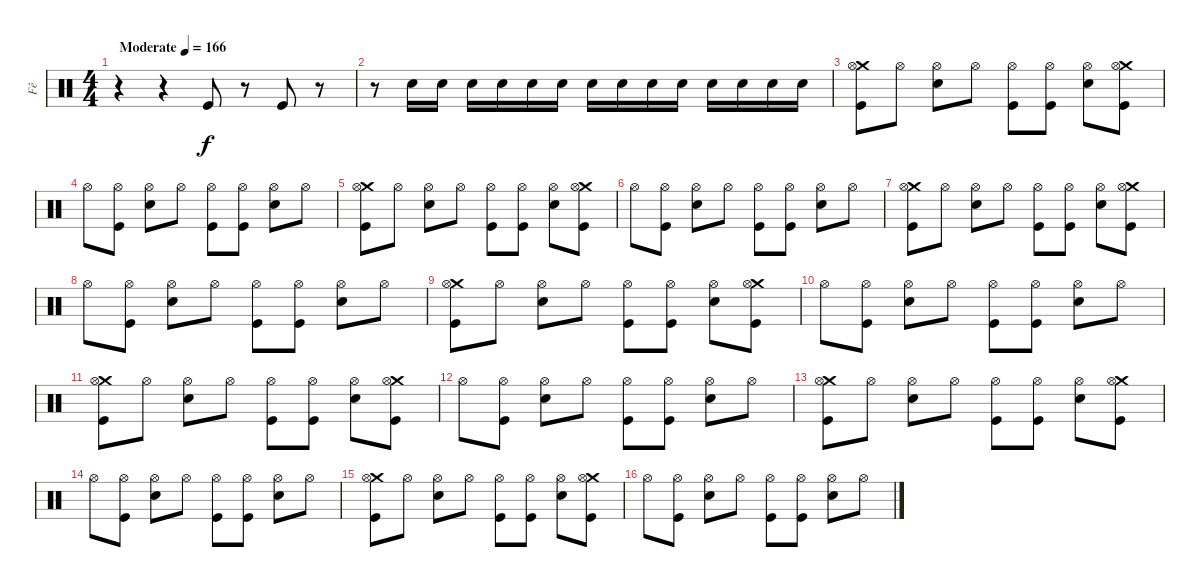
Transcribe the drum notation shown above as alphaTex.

\track ("Fê" "Fê") {instrument percussion}
\staff {score}
\articulation defaults
\ts (4 4)
\tempo (166 "Moderate")
\clef neutral
\ks c
r.4{dy f} r.4 "Kick (hit)".8 r.8 "Kick (hit)".8 r.8 |
r.8 "Electric Snare (hit)".16 "Electric Snare (hit)".16 "Electric Snare (hit)".16 "Electric Snare (hit)".16 "Electric Snare (hit)".16 "Electric Snare (hit)".16 "Electric Snare (hit)".16 "Electric Snare (hit)".16 "Electric Snare (hit)".16 "Electric Snare (hit)".16 "Electric Snare (hit)".16 "Electric Snare (hit)".16 "Electric Snare (hit)".16 "Electric Snare (hit)".16 |
("Crash medium (hit)" "Hi-Hat (open)" "Kick (hit)").8 "Hi-Hat (open)".8 ("Hi-Hat (open)" "Electric Snare (hit)").8 "Hi-Hat (open)".8 ("Hi-Hat (open)" "Kick (hit)").8 ("Hi-Hat (open)" "Kick (hit)").8 ("Hi-Hat (open)" "Electric Snare (hit)").8 ("Crash medium (hit)" "Hi-Hat (open)" "Kick (hit)").8 |
"Hi-Hat (open)".8 ("Hi-Hat (open)" "Kick (hit)").8 ("Hi-Hat (open)" "Electric Snare (hit)").8 "Hi-Hat (open)".8 ("Hi-Hat (open)" "Kick (hit)").8 ("Hi-Hat (open)" "Kick (hit)").8 ("Hi-Hat (open)" "Electric Snare (hit)").8 "Hi-Hat (open)".8 |
("Crash medium (hit)" "Hi-Hat (open)" "Kick (hit)").8 "Hi-Hat (open)".8 ("Hi-Hat (open)" "Electric Snare (hit)").8 "Hi-Hat (open)".8 ("Hi-Hat (open)" "Kick (hit)").8 ("Hi-Hat (open)" "Kick (hit)").8 ("Hi-Hat (open)" "Electric Snare (hit)").8 ("Crash medium (hit)" "Hi-Hat (open)" "Kick (hit)").8 |
"Hi-Hat (open)".8 ("Hi-Hat (open)" "Kick (hit)").8 ("Hi-Hat (open)" "Electric Snare (hit)").8 "Hi-Hat (open)".8 ("Hi-Hat (open)" "Kick (hit)").8 ("Hi-Hat (open)" "Kick (hit)").8 ("Hi-Hat (open)" "Electric Snare (hit)").8 "Hi-Hat (open)".8 |
("Crash medium (hit)" "Hi-Hat (open)" "Kick (hit)").8 "Hi-Hat (open)".8 ("Hi-Hat (open)" "Electric Snare (hit)").8 "Hi-Hat (open)".8 ("Hi-Hat (open)" "Kick (hit)").8 ("Hi-Hat (open)" "Kick (hit)").8 ("Hi-Hat (open)" "Electric Snare (hit)").8 ("Crash medium (hit)" "Hi-Hat (open)" "Kick (hit)").8 |
"Hi-Hat (open)".8 ("Hi-Hat (open)" "Kick (hit)").8 ("Hi-Hat (open)" "Electric Snare (hit)").8 "Hi-Hat (open)".8 ("Hi-Hat (open)" "Kick (hit)").8 ("Hi-Hat (open)" "Kick (hit)").8 ("Hi-Hat (open)" "Electric Snare (hit)").8 "Hi-Hat (open)".8 |
("Crash medium (hit)" "Hi-Hat (open)" "Kick (hit)").8 "Hi-Hat (open)".8 ("Hi-Hat (open)" "Electric Snare (hit)").8 "Hi-Hat (open)".8 ("Hi-Hat (open)" "Kick (hit)").8 ("Hi-Hat (open)" "Kick (hit)").8 ("Hi-Hat (open)" "Electric Snare (hit)").8 ("Crash medium (hit)" "Hi-Hat (open)" "Kick (hit)").8 |
"Hi-Hat (open)".8 ("Hi-Hat (open)" "Kick (hit)").8 ("Hi-Hat (open)" "Electric Snare (hit)").8 "Hi-Hat (open)".8 ("Hi-Hat (open)" "Kick (hit)").8 ("Hi-Hat (open)" "Kick (hit)").8 ("Hi-Hat (open)" "Electric Snare (hit)").8 "Hi-Hat (open)".8 |
("Crash medium (hit)" "Hi-Hat (open)" "Kick (hit)").8 "Hi-Hat (open)".8 ("Hi-Hat (open)" "Electric Snare (hit)").8 "Hi-Hat (open)".8 ("Hi-Hat (open)" "Kick (hit)").8 ("Hi-Hat (open)" "Kick (hit)").8 ("Hi-Hat (open)" "Electric Snare (hit)").8 ("Crash medium (hit)" "Hi-Hat (open)" "Kick (hit)").8 |
"Hi-Hat (open)".8 ("Hi-Hat (open)" "Kick (hit)").8 ("Hi-Hat (open)" "Electric Snare (hit)").8 "Hi-Hat (open)".8 ("Hi-Hat (open)" "Kick (hit)").8 ("Hi-Hat (open)" "Kick (hit)").8 ("Hi-Hat (open)" "Electric Snare (hit)").8 "Hi-Hat (open)".8 |
("Crash medium (hit)" "Hi-Hat (open)" "Kick (hit)").8 "Hi-Hat (open)".8 ("Hi-Hat (open)" "Electric Snare (hit)").8 "Hi-Hat (open)".8 ("Hi-Hat (open)" "Kick (hit)").8 ("Hi-Hat (open)" "Kick (hit)").8 ("Hi-Hat (open)" "Electric Snare (hit)").8 ("Crash medium (hit)" "Hi-Hat (open)" "Kick (hit)").8 |
"Hi-Hat (open)".8 ("Hi-Hat (open)" "Kick (hit)").8 ("Hi-Hat (open)" "Electric Snare (hit)").8 "Hi-Hat (open)".8 ("Hi-Hat (open)" "Kick (hit)").8 ("Hi-Hat (open)" "Kick (hit)").8 ("Hi-Hat (open)" "Electric Snare (hit)").8 "Hi-Hat (open)".8 |
("Crash medium (hit)" "Hi-Hat (open)" "Kick (hit)").8 "Hi-Hat (open)".8 ("Hi-Hat (open)" "Electric Snare (hit)").8 "Hi-Hat (open)".8 ("Hi-Hat (open)" "Kick (hit)").8 ("Hi-Hat (open)" "Kick (hit)").8 ("Hi-Hat (open)" "Electric Snare (hit)").8 ("Crash medium (hit)" "Hi-Hat (open)" "Kick (hit)").8 |
"Hi-Hat (open)".8 ("Hi-Hat (open)" "Kick (hit)").8 ("Hi-Hat (open)" "Electric Snare (hit)").8 "Hi-Hat (open)".8 ("Hi-Hat (open)" "Kick (hit)").8 ("Hi-Hat (open)" "Kick (hit)").8 ("Hi-Hat (open)" "Electric Snare (hit)").8 "Hi-Hat (open)".8
